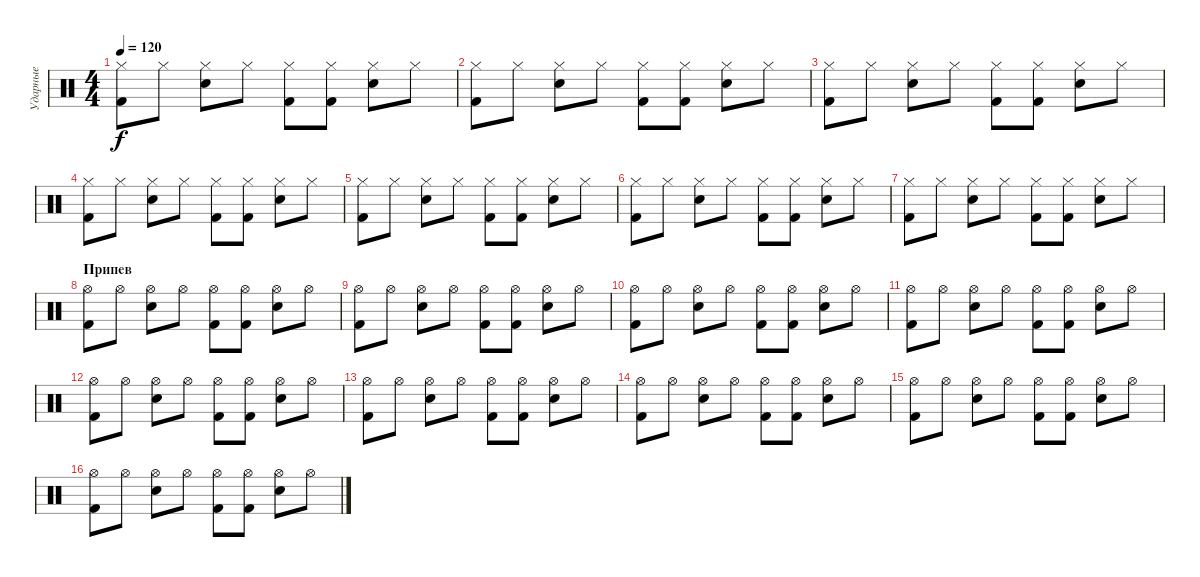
\track ("Ударные" "Ударные") {instrument percussion}
\staff {score}
\articulation defaults
\ts (4 4)
\tempo 120
\clef neutral
\ks c
("Hi-Hat (closed)" "Kick (hit) 2").8{dy f} "Hi-Hat (closed)".8 ("Hi-Hat (closed)" "Snare (hit) 2").8 "Hi-Hat (closed)".8 ("Hi-Hat (closed)" "Kick (hit) 2").8 ("Hi-Hat (closed)" "Kick (hit) 2").8 ("Hi-Hat (closed)" "Snare (hit) 2").8 "Hi-Hat (closed)".8 |
("Hi-Hat (closed)" "Kick (hit) 2").8 "Hi-Hat (closed)".8 ("Hi-Hat (closed)" "Snare (hit) 2").8 "Hi-Hat (closed)".8 ("Hi-Hat (closed)" "Kick (hit) 2").8 ("Hi-Hat (closed)" "Kick (hit) 2").8 ("Hi-Hat (closed)" "Snare (hit) 2").8 "Hi-Hat (closed)".8 |
("Hi-Hat (closed)" "Kick (hit) 2").8 "Hi-Hat (closed)".8 ("Hi-Hat (closed)" "Snare (hit) 2").8 "Hi-Hat (closed)".8 ("Hi-Hat (closed)" "Kick (hit) 2").8 ("Hi-Hat (closed)" "Kick (hit) 2").8 ("Hi-Hat (closed)" "Snare (hit) 2").8 "Hi-Hat (closed)".8 |
("Hi-Hat (closed)" "Kick (hit) 2").8 "Hi-Hat (closed)".8 ("Hi-Hat (closed)" "Snare (hit) 2").8 "Hi-Hat (closed)".8 ("Hi-Hat (closed)" "Kick (hit) 2").8 ("Hi-Hat (closed)" "Kick (hit) 2").8 ("Hi-Hat (closed)" "Snare (hit) 2").8 "Hi-Hat (closed)".8 |
("Hi-Hat (closed)" "Kick (hit) 2").8 "Hi-Hat (closed)".8 ("Hi-Hat (closed)" "Snare (hit) 2").8 "Hi-Hat (closed)".8 ("Hi-Hat (closed)" "Kick (hit) 2").8 ("Hi-Hat (closed)" "Kick (hit) 2").8 ("Hi-Hat (closed)" "Snare (hit) 2").8 "Hi-Hat (closed)".8 |
("Hi-Hat (closed)" "Kick (hit) 2").8 "Hi-Hat (closed)".8 ("Hi-Hat (closed)" "Snare (hit) 2").8 "Hi-Hat (closed)".8 ("Hi-Hat (closed)" "Kick (hit) 2").8 ("Hi-Hat (closed)" "Kick (hit) 2").8 ("Hi-Hat (closed)" "Snare (hit) 2").8 "Hi-Hat (closed)".8 |
("Hi-Hat (closed)" "Kick (hit) 2").8 "Hi-Hat (closed)".8 ("Hi-Hat (closed)" "Snare (hit) 2").8 "Hi-Hat (closed)".8 ("Hi-Hat (closed)" "Kick (hit) 2").8 ("Hi-Hat (closed)" "Kick (hit) 2").8 ("Hi-Hat (closed)" "Snare (hit) 2").8 "Hi-Hat (closed)".8 |
\section ("" "Припев")
("Hi-Hat (open)" "Kick (hit) 2").8 "Hi-Hat (open)".8 ("Hi-Hat (open)" "Snare (hit) 2").8 "Hi-Hat (open)".8 ("Hi-Hat (open)" "Kick (hit) 2").8 ("Hi-Hat (open)" "Kick (hit) 2").8 ("Hi-Hat (open)" "Snare (hit) 2").8 "Hi-Hat (open)".8 |
("Hi-Hat (open)" "Kick (hit) 2").8 "Hi-Hat (open)".8 ("Hi-Hat (open)" "Snare (hit) 2").8 "Hi-Hat (open)".8 ("Hi-Hat (open)" "Kick (hit) 2").8 ("Hi-Hat (open)" "Kick (hit) 2").8 ("Hi-Hat (open)" "Snare (hit) 2").8 "Hi-Hat (open)".8 |
("Hi-Hat (open)" "Kick (hit) 2").8 "Hi-Hat (open)".8 ("Hi-Hat (open)" "Snare (hit) 2").8 "Hi-Hat (open)".8 ("Hi-Hat (open)" "Kick (hit) 2").8 ("Hi-Hat (open)" "Kick (hit) 2").8 ("Hi-Hat (open)" "Snare (hit) 2").8 "Hi-Hat (open)".8 |
("Hi-Hat (open)" "Kick (hit) 2").8 "Hi-Hat (open)".8 ("Hi-Hat (open)" "Snare (hit) 2").8 "Hi-Hat (open)".8 ("Hi-Hat (open)" "Kick (hit) 2").8 ("Hi-Hat (open)" "Kick (hit) 2").8 ("Hi-Hat (open)" "Snare (hit) 2").8 "Hi-Hat (open)".8 |
("Hi-Hat (open)" "Kick (hit) 2").8 "Hi-Hat (open)".8 ("Hi-Hat (open)" "Snare (hit) 2").8 "Hi-Hat (open)".8 ("Hi-Hat (open)" "Kick (hit) 2").8 ("Hi-Hat (open)" "Kick (hit) 2").8 ("Hi-Hat (open)" "Snare (hit) 2").8 "Hi-Hat (open)".8 |
("Hi-Hat (open)" "Kick (hit) 2").8 "Hi-Hat (open)".8 ("Hi-Hat (open)" "Snare (hit) 2").8 "Hi-Hat (open)".8 ("Hi-Hat (open)" "Kick (hit) 2").8 ("Hi-Hat (open)" "Kick (hit) 2").8 ("Hi-Hat (open)" "Snare (hit) 2").8 "Hi-Hat (open)".8 |
("Hi-Hat (open)" "Kick (hit) 2").8 "Hi-Hat (open)".8 ("Hi-Hat (open)" "Snare (hit) 2").8 "Hi-Hat (open)".8 ("Hi-Hat (open)" "Kick (hit) 2").8 ("Hi-Hat (open)" "Kick (hit) 2").8 ("Hi-Hat (open)" "Snare (hit) 2").8 "Hi-Hat (open)".8 |
("Hi-Hat (open)" "Kick (hit) 2").8 "Hi-Hat (open)".8 ("Hi-Hat (open)" "Snare (hit) 2").8 "Hi-Hat (open)".8 ("Hi-Hat (open)" "Kick (hit) 2").8 ("Hi-Hat (open)" "Kick (hit) 2").8 ("Hi-Hat (open)" "Snare (hit) 2").8 "Hi-Hat (open)".8 |
("Hi-Hat (open)" "Kick (hit) 2").8 "Hi-Hat (open)".8 ("Hi-Hat (open)" "Snare (hit) 2").8 "Hi-Hat (open)".8 ("Hi-Hat (open)" "Kick (hit) 2").8 ("Hi-Hat (open)" "Kick (hit) 2").8 ("Hi-Hat (open)" "Snare (hit) 2").8 "Hi-Hat (open)".8
